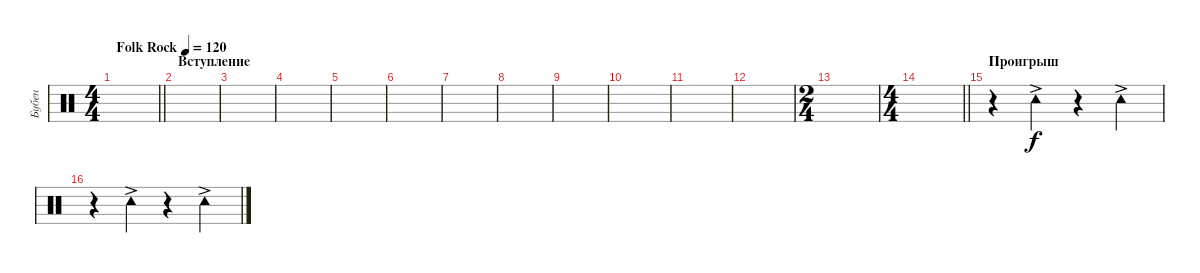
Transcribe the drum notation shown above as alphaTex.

\track ("Бубен" "Бубен") {instrument percussion}
\staff {score}
\articulation defaults
\ts (4 4)
\tempo (120 "Folk Rock")
\clef neutral
\barLineRight lightlight
\ks c
|
\section ("" "Вступление")
|
|
|
|
|
|
|
|
|
|
|
\ts (2 4)
|
\ts (4 4)
\barLineRight lightlight
|
\section ("" "Проигрыш")
r.4 "Tambourine (hit)"{ac}.4 r.4 "Tambourine (hit)"{ac}.4 |
r.4 "Tambourine (hit)"{ac}.4 r.4 "Tambourine (hit)"{ac}.4
